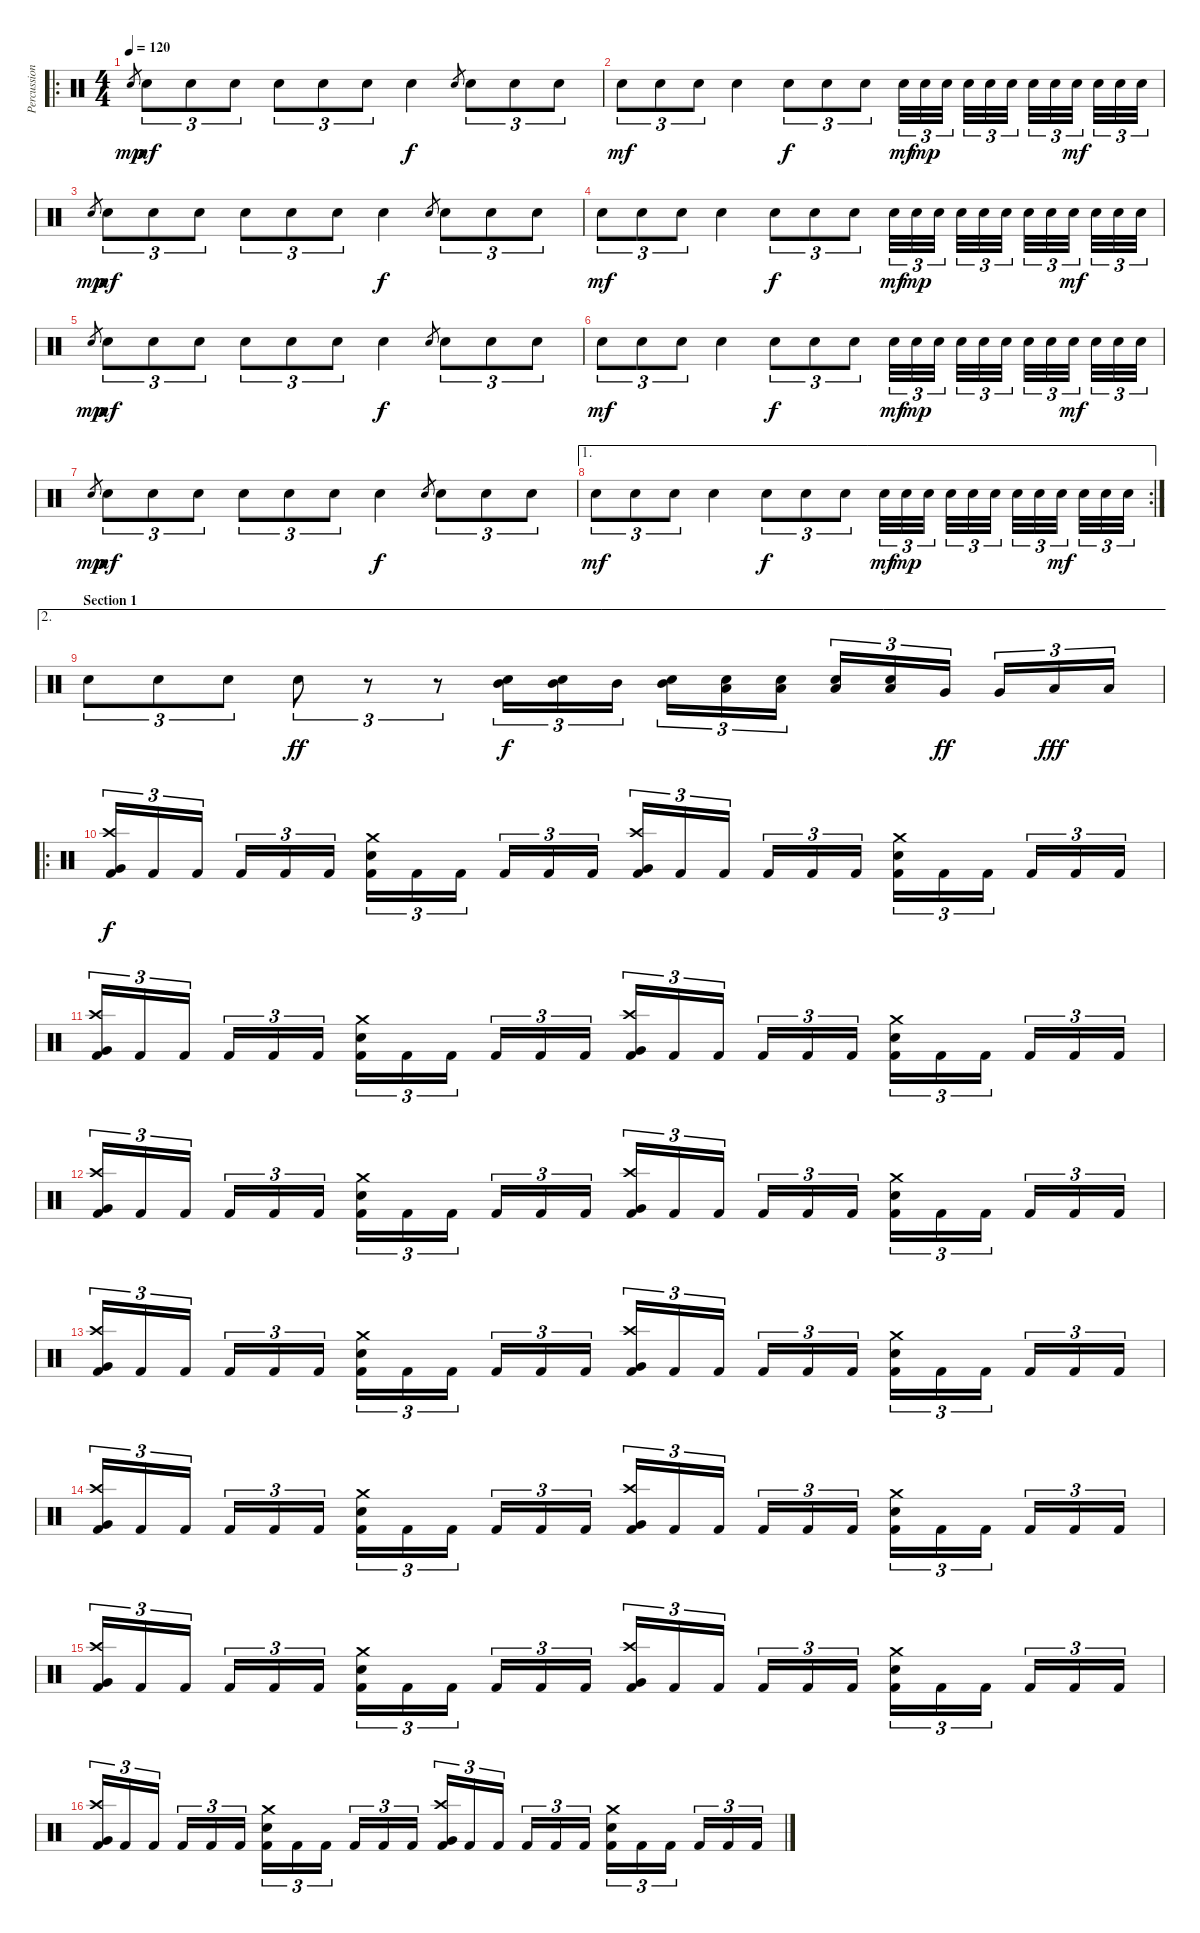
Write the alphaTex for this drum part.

\track ("Percussion" "Percussion") {instrument percussion}
\staff {score}
\articulation defaults
\ro
\ts (4 4)
\tempo 120
\clef neutral
\ks c "Electric Snare (hit)".8{gr dy mp} "Electric Snare (hit)".8{tu (3 2) dy mf} "Electric Snare (hit)".8{tu (3 2)} "Electric Snare (hit)".8{tu (3 2)} "Electric Snare (hit)".8{tu (3 2)} "Electric Snare (hit)".8{tu (3 2)} "Electric Snare (hit)".8{tu (3 2)} "Electric Snare (hit)".4{dy f} "Electric Snare (hit)".8{gr} "Electric Snare (hit)".8{tu (3 2)} "Electric Snare (hit)".8{tu (3 2)} "Electric Snare (hit)".8{tu (3 2)}
|
"Electric Snare (hit)".8{tu (3 2) dy mf} "Electric Snare (hit)".8{tu (3 2)} "Electric Snare (hit)".8{tu (3 2)} "Electric Snare (hit)".4 "Electric Snare (hit)".8{tu (3 2) dy f} "Electric Snare (hit)".8{tu (3 2)} "Electric Snare (hit)".8{tu (3 2)} "Electric Snare (hit)".32{tu (3 2) dy mf} "Electric Snare (hit)".32{tu (3 2) dy mp} "Electric Snare (hit)".32{tu (3 2)} "Electric Snare (hit)".32{tu (3 2)} "Electric Snare (hit)".32{tu (3 2)} "Electric Snare (hit)".32{tu (3 2)} "Electric Snare (hit)".32{tu (3 2)} "Electric Snare (hit)".32{tu (3 2)} "Electric Snare (hit)".32{tu (3 2) dy mf} "Electric Snare (hit)".32{tu (3 2)} "Electric Snare (hit)".32{tu (3 2)} "Electric Snare (hit)".32{tu (3 2)} |
"Electric Snare (hit)".8{gr dy mp} "Electric Snare (hit)".8{tu (3 2) dy mf} "Electric Snare (hit)".8{tu (3 2)} "Electric Snare (hit)".8{tu (3 2)} "Electric Snare (hit)".8{tu (3 2)} "Electric Snare (hit)".8{tu (3 2)} "Electric Snare (hit)".8{tu (3 2)} "Electric Snare (hit)".4{dy f} "Electric Snare (hit)".8{gr} "Electric Snare (hit)".8{tu (3 2)} "Electric Snare (hit)".8{tu (3 2)} "Electric Snare (hit)".8{tu (3 2)} |
"Electric Snare (hit)".8{tu (3 2) dy mf} "Electric Snare (hit)".8{tu (3 2)} "Electric Snare (hit)".8{tu (3 2)} "Electric Snare (hit)".4 "Electric Snare (hit)".8{tu (3 2) dy f} "Electric Snare (hit)".8{tu (3 2)} "Electric Snare (hit)".8{tu (3 2)} "Electric Snare (hit)".32{tu (3 2) dy mf} "Electric Snare (hit)".32{tu (3 2) dy mp} "Electric Snare (hit)".32{tu (3 2)} "Electric Snare (hit)".32{tu (3 2)} "Electric Snare (hit)".32{tu (3 2)} "Electric Snare (hit)".32{tu (3 2)} "Electric Snare (hit)".32{tu (3 2)} "Electric Snare (hit)".32{tu (3 2)} "Electric Snare (hit)".32{tu (3 2) dy mf} "Electric Snare (hit)".32{tu (3 2)} "Electric Snare (hit)".32{tu (3 2)} "Electric Snare (hit)".32{tu (3 2)} |
"Electric Snare (hit)".8{gr dy mp} "Electric Snare (hit)".8{tu (3 2) dy mf} "Electric Snare (hit)".8{tu (3 2)} "Electric Snare (hit)".8{tu (3 2)} "Electric Snare (hit)".8{tu (3 2)} "Electric Snare (hit)".8{tu (3 2)} "Electric Snare (hit)".8{tu (3 2)} "Electric Snare (hit)".4{dy f} "Electric Snare (hit)".8{gr} "Electric Snare (hit)".8{tu (3 2)} "Electric Snare (hit)".8{tu (3 2)} "Electric Snare (hit)".8{tu (3 2)} |
"Electric Snare (hit)".8{tu (3 2) dy mf} "Electric Snare (hit)".8{tu (3 2)} "Electric Snare (hit)".8{tu (3 2)} "Electric Snare (hit)".4 "Electric Snare (hit)".8{tu (3 2) dy f} "Electric Snare (hit)".8{tu (3 2)} "Electric Snare (hit)".8{tu (3 2)} "Electric Snare (hit)".32{tu (3 2) dy mf} "Electric Snare (hit)".32{tu (3 2) dy mp} "Electric Snare (hit)".32{tu (3 2)} "Electric Snare (hit)".32{tu (3 2)} "Electric Snare (hit)".32{tu (3 2)} "Electric Snare (hit)".32{tu (3 2)} "Electric Snare (hit)".32{tu (3 2)} "Electric Snare (hit)".32{tu (3 2)} "Electric Snare (hit)".32{tu (3 2) dy mf} "Electric Snare (hit)".32{tu (3 2)} "Electric Snare (hit)".32{tu (3 2)} "Electric Snare (hit)".32{tu (3 2)} |
"Electric Snare (hit)".8{gr dy mp} "Electric Snare (hit)".8{tu (3 2) dy mf} "Electric Snare (hit)".8{tu (3 2)} "Electric Snare (hit)".8{tu (3 2)} "Electric Snare (hit)".8{tu (3 2)} "Electric Snare (hit)".8{tu (3 2)} "Electric Snare (hit)".8{tu (3 2)} "Electric Snare (hit)".4{dy f} "Electric Snare (hit)".8{gr} "Electric Snare (hit)".8{tu (3 2)} "Electric Snare (hit)".8{tu (3 2)} "Electric Snare (hit)".8{tu (3 2)} |
\ae 1
\rc 2 "Electric Snare (hit)".8{tu (3 2) dy mf} "Electric Snare (hit)".8{tu (3 2)} "Electric Snare (hit)".8{tu (3 2)} "Electric Snare (hit)".4 "Electric Snare (hit)".8{tu (3 2) dy f} "Electric Snare (hit)".8{tu (3 2)} "Electric Snare (hit)".8{tu (3 2)} "Electric Snare (hit)".32{tu (3 2) dy mf} "Electric Snare (hit)".32{tu (3 2) dy mp} "Electric Snare (hit)".32{tu (3 2)} "Electric Snare (hit)".32{tu (3 2)} "Electric Snare (hit)".32{tu (3 2)} "Electric Snare (hit)".32{tu (3 2)} "Electric Snare (hit)".32{tu (3 2)} "Electric Snare (hit)".32{tu (3 2)} "Electric Snare (hit)".32{tu (3 2) dy mf} "Electric Snare (hit)".32{tu (3 2)} "Electric Snare (hit)".32{tu (3 2)} "Electric Snare (hit)".32{tu (3 2)}
|
\ae 2
\section ("" "Section 1")
"Electric Snare (hit)".8{tu (3 2)} "Electric Snare (hit)".8{tu (3 2)} "Electric Snare (hit)".8{tu (3 2)} "Electric Snare (hit)".8{tu (3 2) dy ff} r.8{tu (3 2)} r.8{tu (3 2)} ("Electric Snare (hit)" "Mid Tom (hit)").16{tu (3 2) dy f} ("Electric Snare (hit)" "Mid Tom (hit)").16{tu (3 2)} "Mid Tom (hit)".16{tu (3 2)} ("Electric Snare (hit)" "Mid Tom (hit)").16{tu (3 2)} ("Electric Snare (hit)" "Low Tom (hit)").16{tu (3 2)} ("Electric Snare (hit)" "Low Tom (hit)").16{tu (3 2)} ("Electric Snare (hit)" "Low Tom (hit)").16{tu (3 2)} ("Electric Snare (hit)" "Low Tom (hit)").16{tu (3 2)} "Very Low Tom (hit)".16{tu (3 2) dy ff} "Very Low Tom (hit)".16{tu (3 2)} "Low Floor Tom (hit)".16{tu (3 2) dy fff} "Low Floor Tom (hit)".16{tu (3 2)} |
\ro
("Crash high (hit)" "Very Low Tom (hit)" "Kick (hit) 2").16{tu (3 2) dy f} "Kick (hit) 2".16{tu (3 2)} "Kick (hit) 2".16{tu (3 2)} "Kick (hit) 2".16{tu (3 2)} "Kick (hit) 2".16{tu (3 2)} "Kick (hit) 2".16{tu (3 2)} ("Crash medium (hit)" "Electric Snare (hit)" "Kick (hit) 2").16{tu (3 2)} "Kick (hit) 2".16{tu (3 2)} "Kick (hit) 2".16{tu (3 2)} "Kick (hit) 2".16{tu (3 2)} "Kick (hit) 2".16{tu (3 2)} "Kick (hit) 2".16{tu (3 2)} ("Crash high (hit)" "Very Low Tom (hit)" "Kick (hit) 2").16{tu (3 2)} "Kick (hit) 2".16{tu (3 2)} "Kick (hit) 2".16{tu (3 2)} "Kick (hit) 2".16{tu (3 2)} "Kick (hit) 2".16{tu (3 2)} "Kick (hit) 2".16{tu (3 2)} ("Crash medium (hit)" "Electric Snare (hit)" "Kick (hit) 2").16{tu (3 2)} "Kick (hit) 2".16{tu (3 2)} "Kick (hit) 2".16{tu (3 2)} "Kick (hit) 2".16{tu (3 2)} "Kick (hit) 2".16{tu (3 2)} "Kick (hit) 2".16{tu (3 2)} |
("Crash high (hit)" "Very Low Tom (hit)" "Kick (hit) 2").16{tu (3 2)} "Kick (hit) 2".16{tu (3 2)} "Kick (hit) 2".16{tu (3 2)} "Kick (hit) 2".16{tu (3 2)} "Kick (hit) 2".16{tu (3 2)} "Kick (hit) 2".16{tu (3 2)} ("Crash medium (hit)" "Electric Snare (hit)" "Kick (hit) 2").16{tu (3 2)} "Kick (hit) 2".16{tu (3 2)} "Kick (hit) 2".16{tu (3 2)} "Kick (hit) 2".16{tu (3 2)} "Kick (hit) 2".16{tu (3 2)} "Kick (hit) 2".16{tu (3 2)} ("Crash high (hit)" "Very Low Tom (hit)" "Kick (hit) 2").16{tu (3 2)} "Kick (hit) 2".16{tu (3 2)} "Kick (hit) 2".16{tu (3 2)} "Kick (hit) 2".16{tu (3 2)} "Kick (hit) 2".16{tu (3 2)} "Kick (hit) 2".16{tu (3 2)} ("Crash medium (hit)" "Electric Snare (hit)" "Kick (hit) 2").16{tu (3 2)} "Kick (hit) 2".16{tu (3 2)} "Kick (hit) 2".16{tu (3 2)} "Kick (hit) 2".16{tu (3 2)} "Kick (hit) 2".16{tu (3 2)} "Kick (hit) 2".16{tu (3 2)} |
("Crash high (hit)" "Very Low Tom (hit)" "Kick (hit) 2").16{tu (3 2)} "Kick (hit) 2".16{tu (3 2)} "Kick (hit) 2".16{tu (3 2)} "Kick (hit) 2".16{tu (3 2)} "Kick (hit) 2".16{tu (3 2)} "Kick (hit) 2".16{tu (3 2)} ("Crash medium (hit)" "Electric Snare (hit)" "Kick (hit) 2").16{tu (3 2)} "Kick (hit) 2".16{tu (3 2)} "Kick (hit) 2".16{tu (3 2)} "Kick (hit) 2".16{tu (3 2)} "Kick (hit) 2".16{tu (3 2)} "Kick (hit) 2".16{tu (3 2)} ("Crash high (hit)" "Very Low Tom (hit)" "Kick (hit) 2").16{tu (3 2)} "Kick (hit) 2".16{tu (3 2)} "Kick (hit) 2".16{tu (3 2)} "Kick (hit) 2".16{tu (3 2)} "Kick (hit) 2".16{tu (3 2)} "Kick (hit) 2".16{tu (3 2)} ("Crash medium (hit)" "Electric Snare (hit)" "Kick (hit) 2").16{tu (3 2)} "Kick (hit) 2".16{tu (3 2)} "Kick (hit) 2".16{tu (3 2)} "Kick (hit) 2".16{tu (3 2)} "Kick (hit) 2".16{tu (3 2)} "Kick (hit) 2".16{tu (3 2)} |
("Crash high (hit)" "Very Low Tom (hit)" "Kick (hit) 2").16{tu (3 2)} "Kick (hit) 2".16{tu (3 2)} "Kick (hit) 2".16{tu (3 2)} "Kick (hit) 2".16{tu (3 2)} "Kick (hit) 2".16{tu (3 2)} "Kick (hit) 2".16{tu (3 2)} ("Crash medium (hit)" "Electric Snare (hit)" "Kick (hit) 2").16{tu (3 2)} "Kick (hit) 2".16{tu (3 2)} "Kick (hit) 2".16{tu (3 2)} "Kick (hit) 2".16{tu (3 2)} "Kick (hit) 2".16{tu (3 2)} "Kick (hit) 2".16{tu (3 2)} ("Crash high (hit)" "Very Low Tom (hit)" "Kick (hit) 2").16{tu (3 2)} "Kick (hit) 2".16{tu (3 2)} "Kick (hit) 2".16{tu (3 2)} "Kick (hit) 2".16{tu (3 2)} "Kick (hit) 2".16{tu (3 2)} "Kick (hit) 2".16{tu (3 2)} ("Crash medium (hit)" "Electric Snare (hit)" "Kick (hit) 2").16{tu (3 2)} "Kick (hit) 2".16{tu (3 2)} "Kick (hit) 2".16{tu (3 2)} "Kick (hit) 2".16{tu (3 2)} "Kick (hit) 2".16{tu (3 2)} "Kick (hit) 2".16{tu (3 2)} |
("Crash high (hit)" "Very Low Tom (hit)" "Kick (hit) 2").16{tu (3 2)} "Kick (hit) 2".16{tu (3 2)} "Kick (hit) 2".16{tu (3 2)} "Kick (hit) 2".16{tu (3 2)} "Kick (hit) 2".16{tu (3 2)} "Kick (hit) 2".16{tu (3 2)} ("Crash medium (hit)" "Electric Snare (hit)" "Kick (hit) 2").16{tu (3 2)} "Kick (hit) 2".16{tu (3 2)} "Kick (hit) 2".16{tu (3 2)} "Kick (hit) 2".16{tu (3 2)} "Kick (hit) 2".16{tu (3 2)} "Kick (hit) 2".16{tu (3 2)} ("Crash high (hit)" "Very Low Tom (hit)" "Kick (hit) 2").16{tu (3 2)} "Kick (hit) 2".16{tu (3 2)} "Kick (hit) 2".16{tu (3 2)} "Kick (hit) 2".16{tu (3 2)} "Kick (hit) 2".16{tu (3 2)} "Kick (hit) 2".16{tu (3 2)} ("Crash medium (hit)" "Electric Snare (hit)" "Kick (hit) 2").16{tu (3 2)} "Kick (hit) 2".16{tu (3 2)} "Kick (hit) 2".16{tu (3 2)} "Kick (hit) 2".16{tu (3 2)} "Kick (hit) 2".16{tu (3 2)} "Kick (hit) 2".16{tu (3 2)} |
("Crash high (hit)" "Very Low Tom (hit)" "Kick (hit) 2").16{tu (3 2)} "Kick (hit) 2".16{tu (3 2)} "Kick (hit) 2".16{tu (3 2)} "Kick (hit) 2".16{tu (3 2)} "Kick (hit) 2".16{tu (3 2)} "Kick (hit) 2".16{tu (3 2)} ("Crash medium (hit)" "Electric Snare (hit)" "Kick (hit) 2").16{tu (3 2)} "Kick (hit) 2".16{tu (3 2)} "Kick (hit) 2".16{tu (3 2)} "Kick (hit) 2".16{tu (3 2)} "Kick (hit) 2".16{tu (3 2)} "Kick (hit) 2".16{tu (3 2)} ("Crash high (hit)" "Very Low Tom (hit)" "Kick (hit) 2").16{tu (3 2)} "Kick (hit) 2".16{tu (3 2)} "Kick (hit) 2".16{tu (3 2)} "Kick (hit) 2".16{tu (3 2)} "Kick (hit) 2".16{tu (3 2)} "Kick (hit) 2".16{tu (3 2)} ("Crash medium (hit)" "Electric Snare (hit)" "Kick (hit) 2").16{tu (3 2)} "Kick (hit) 2".16{tu (3 2)} "Kick (hit) 2".16{tu (3 2)} "Kick (hit) 2".16{tu (3 2)} "Kick (hit) 2".16{tu (3 2)} "Kick (hit) 2".16{tu (3 2)} |
("Crash high (hit)" "Very Low Tom (hit)" "Kick (hit) 2").16{tu (3 2)} "Kick (hit) 2".16{tu (3 2)} "Kick (hit) 2".16{tu (3 2)} "Kick (hit) 2".16{tu (3 2)} "Kick (hit) 2".16{tu (3 2)} "Kick (hit) 2".16{tu (3 2)} ("Crash medium (hit)" "Electric Snare (hit)" "Kick (hit) 2").16{tu (3 2)} "Kick (hit) 2".16{tu (3 2)} "Kick (hit) 2".16{tu (3 2)} "Kick (hit) 2".16{tu (3 2)} "Kick (hit) 2".16{tu (3 2)} "Kick (hit) 2".16{tu (3 2)} ("Crash high (hit)" "Very Low Tom (hit)" "Kick (hit) 2").16{tu (3 2)} "Kick (hit) 2".16{tu (3 2)} "Kick (hit) 2".16{tu (3 2)} "Kick (hit) 2".16{tu (3 2)} "Kick (hit) 2".16{tu (3 2)} "Kick (hit) 2".16{tu (3 2)} ("Crash medium (hit)" "Electric Snare (hit)" "Kick (hit) 2").16{tu (3 2)} "Kick (hit) 2".16{tu (3 2)} "Kick (hit) 2".16{tu (3 2)} "Kick (hit) 2".16{tu (3 2)} "Kick (hit) 2".16{tu (3 2)} "Kick (hit) 2".16{tu (3 2)}
